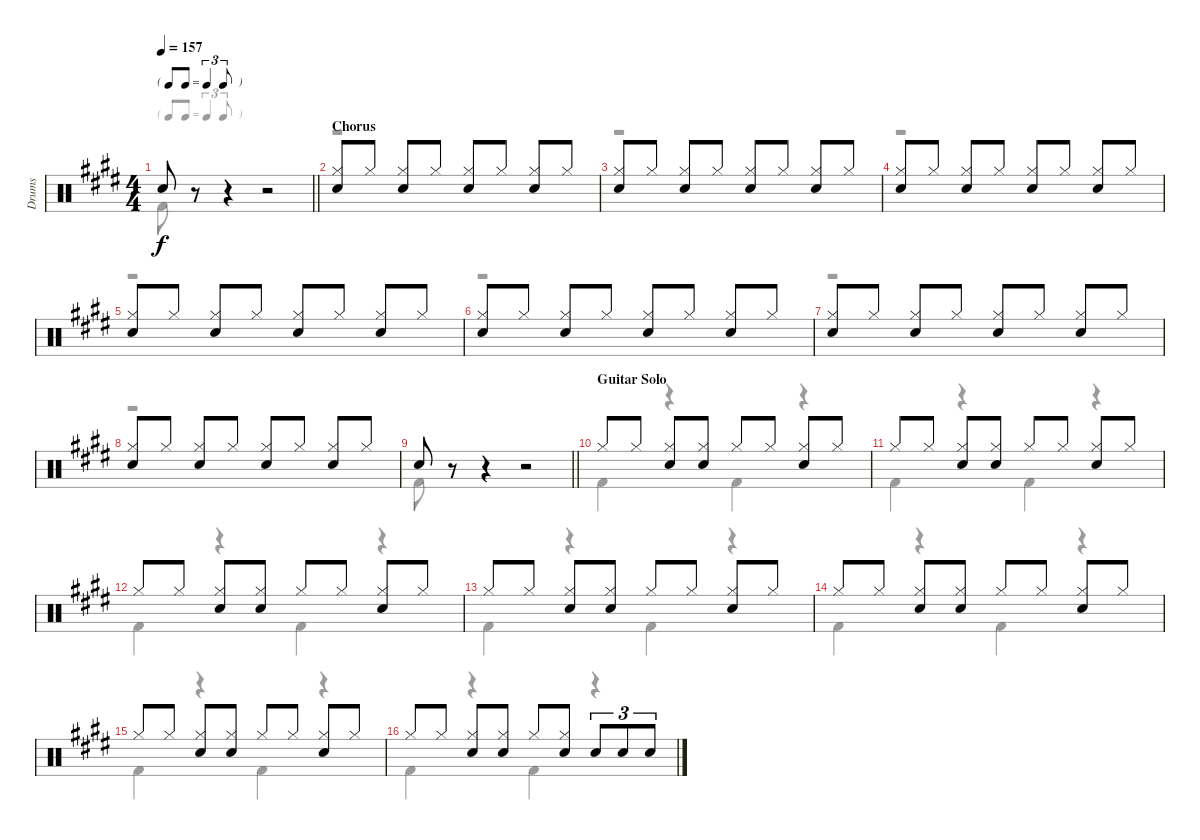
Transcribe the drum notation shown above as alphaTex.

\track ("Drums" "Drums") {instrument percussion}
\staff {score}
\articulation defaults
\voice
\ts (4 4)
\tf triplet8th
\tempo 157
\clef neutral
\barLineRight lightlight
\ks e "Snare (hit) 2".8{dy f}
r.8 r.4 r.2 |
\section ("" "Chorus")
("Hi-Hat (closed)" "Snare (hit) 2").8 "Hi-Hat (closed)".8 ("Hi-Hat (closed)" "Snare (hit) 2").8 "Hi-Hat (closed)".8 ("Hi-Hat (closed)" "Snare (hit) 2").8 "Hi-Hat (closed)".8 ("Hi-Hat (closed)" "Snare (hit) 2").8 "Hi-Hat (closed)".8 |
("Hi-Hat (closed)" "Snare (hit) 2").8 "Hi-Hat (closed)".8 ("Hi-Hat (closed)" "Snare (hit) 2").8 "Hi-Hat (closed)".8 ("Hi-Hat (closed)" "Snare (hit) 2").8 "Hi-Hat (closed)".8 ("Hi-Hat (closed)" "Snare (hit) 2").8 "Hi-Hat (closed)".8 |
("Hi-Hat (closed)" "Snare (hit) 2").8 "Hi-Hat (closed)".8 ("Hi-Hat (closed)" "Snare (hit) 2").8 "Hi-Hat (closed)".8 ("Hi-Hat (closed)" "Snare (hit) 2").8 "Hi-Hat (closed)".8 ("Hi-Hat (closed)" "Snare (hit) 2").8 "Hi-Hat (closed)".8 |
("Hi-Hat (closed)" "Snare (hit) 2").8 "Hi-Hat (closed)".8 ("Hi-Hat (closed)" "Snare (hit) 2").8 "Hi-Hat (closed)".8 ("Hi-Hat (closed)" "Snare (hit) 2").8 "Hi-Hat (closed)".8 ("Hi-Hat (closed)" "Snare (hit) 2").8 "Hi-Hat (closed)".8 |
("Hi-Hat (closed)" "Snare (hit) 2").8 "Hi-Hat (closed)".8 ("Hi-Hat (closed)" "Snare (hit) 2").8 "Hi-Hat (closed)".8 ("Hi-Hat (closed)" "Snare (hit) 2").8 "Hi-Hat (closed)".8 ("Hi-Hat (closed)" "Snare (hit) 2").8 "Hi-Hat (closed)".8 |
("Hi-Hat (closed)" "Snare (hit) 2").8 "Hi-Hat (closed)".8 ("Hi-Hat (closed)" "Snare (hit) 2").8 "Hi-Hat (closed)".8 ("Hi-Hat (closed)" "Snare (hit) 2").8 "Hi-Hat (closed)".8 ("Hi-Hat (closed)" "Snare (hit) 2").8 "Hi-Hat (closed)".8 |
("Hi-Hat (closed)" "Snare (hit) 2").8 "Hi-Hat (closed)".8 ("Hi-Hat (closed)" "Snare (hit) 2").8 "Hi-Hat (closed)".8 ("Hi-Hat (closed)" "Snare (hit) 2").8 "Hi-Hat (closed)".8 ("Hi-Hat (closed)" "Snare (hit) 2").8 "Hi-Hat (closed)".8 |
\barLineRight lightlight "Snare (hit) 2".8
r.8 r.4 r.2 |
\section ("" "Guitar Solo")
"Hi-Hat (closed)".8 "Hi-Hat (closed)".8 ("Hi-Hat (closed)" "Snare (hit) 2").8 ("Hi-Hat (closed)" "Snare (hit) 2").8 "Hi-Hat (closed)".8 "Hi-Hat (closed)".8 ("Hi-Hat (closed)" "Snare (hit) 2").8 "Hi-Hat (closed)".8 |
"Hi-Hat (closed)".8 "Hi-Hat (closed)".8 ("Hi-Hat (closed)" "Snare (hit) 2").8 ("Hi-Hat (closed)" "Snare (hit) 2").8 "Hi-Hat (closed)".8 "Hi-Hat (closed)".8 ("Hi-Hat (closed)" "Snare (hit) 2").8 "Hi-Hat (closed)".8 |
"Hi-Hat (closed)".8 "Hi-Hat (closed)".8 ("Hi-Hat (closed)" "Snare (hit) 2").8 ("Hi-Hat (closed)" "Snare (hit) 2").8 "Hi-Hat (closed)".8 "Hi-Hat (closed)".8 ("Hi-Hat (closed)" "Snare (hit) 2").8 "Hi-Hat (closed)".8 |
"Hi-Hat (closed)".8 "Hi-Hat (closed)".8 ("Hi-Hat (closed)" "Snare (hit) 2").8 ("Hi-Hat (closed)" "Snare (hit) 2").8 "Hi-Hat (closed)".8 "Hi-Hat (closed)".8 ("Hi-Hat (closed)" "Snare (hit) 2").8 "Hi-Hat (closed)".8 |
"Hi-Hat (closed)".8 "Hi-Hat (closed)".8 ("Hi-Hat (closed)" "Snare (hit) 2").8 ("Hi-Hat (closed)" "Snare (hit) 2").8 "Hi-Hat (closed)".8 "Hi-Hat (closed)".8 ("Hi-Hat (closed)" "Snare (hit) 2").8 "Hi-Hat (closed)".8 |
"Hi-Hat (closed)".8 "Hi-Hat (closed)".8 ("Hi-Hat (closed)" "Snare (hit) 2").8 ("Hi-Hat (closed)" "Snare (hit) 2").8 "Hi-Hat (closed)".8 "Hi-Hat (closed)".8 ("Hi-Hat (closed)" "Snare (hit) 2").8 "Hi-Hat (closed)".8 |
"Hi-Hat (closed)".8 "Hi-Hat (closed)".8 ("Hi-Hat (closed)" "Snare (hit) 2").8 ("Hi-Hat (closed)" "Snare (hit) 2").8 "Hi-Hat (closed)".8 ("Hi-Hat (closed)" "Snare (hit) 2").8 "Snare (hit) 2".8{tu (3 2)} "Snare (hit) 2".8{tu (3 2)} "Snare (hit) 2".8{tu (3 2)}
\voice
\clef neutral
\ottava regular
\simile none
\barLineRight lightlight
\ks e "Kick (hit) 2".8{dy f}
r.8 r.4 r.2 |
r.1 |
r.1 |
r.1 |
r.1 |
r.1 |
r.1 |
r.1 |
\barLineRight lightlight "Kick (hit) 2".8
r.8 r.4 r.2 |
"Kick (hit) 2".4 r.4 "Kick (hit) 2".4 r.4 |
"Kick (hit) 2".4 r.4 "Kick (hit) 2".4 r.4 |
"Kick (hit) 2".4 r.4 "Kick (hit) 2".4 r.4 |
"Kick (hit) 2".4 r.4 "Kick (hit) 2".4 r.4 |
"Kick (hit) 2".4 r.4 "Kick (hit) 2".4 r.4 |
"Kick (hit) 2".4 r.4 "Kick (hit) 2".4 r.4 |
"Kick (hit) 2".4 r.4 "Kick (hit) 2".4 r.4
